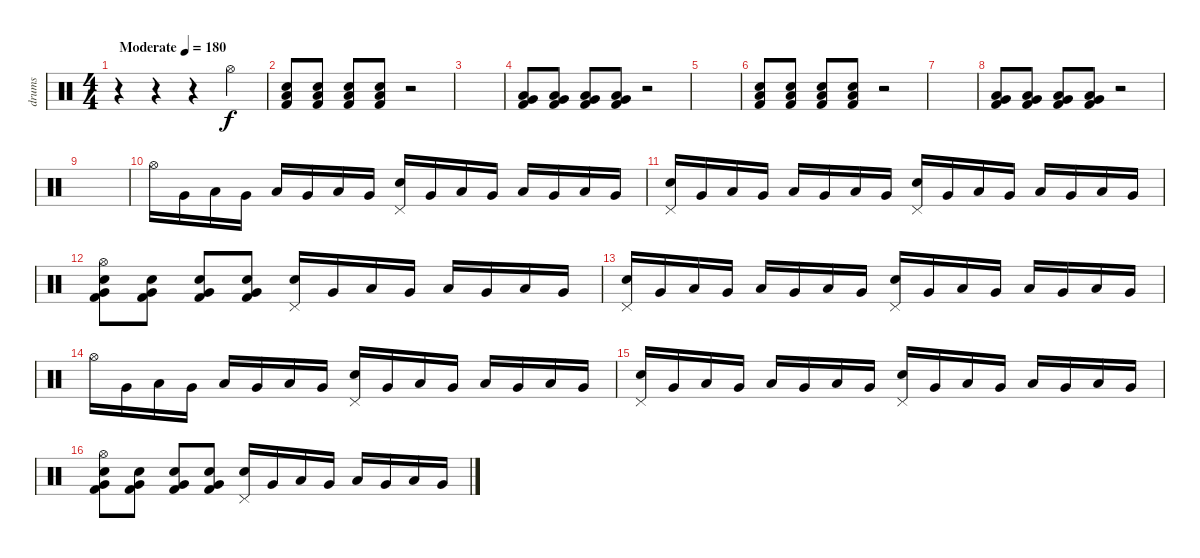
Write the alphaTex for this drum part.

\track ("drums" "drums") {instrument percussion}
\staff {score}
\articulation defaults
\ts (4 4)
\tempo (180 "Moderate")
\clef neutral
\ks c
r.4{dy f} r.4 r.4 "Hi-Hat (open)".4 |
("Low Floor Tom (hit)" "Snare (hit) 2" "Kick (hit) 2").8 ("Low Floor Tom (hit)" "Snare (hit) 2" "Kick (hit) 2").8 ("Low Floor Tom (hit)" "Snare (hit) 2" "Kick (hit) 2").8 ("Low Floor Tom (hit)" "Snare (hit) 2" "Kick (hit) 2").8 r.2 |
|
("Low Floor Tom (hit)" "Very Low Tom (hit)" "Kick (hit) 2").8 ("Low Floor Tom (hit)" "Very Low Tom (hit)" "Kick (hit) 2").8 ("Low Floor Tom (hit)" "Very Low Tom (hit)" "Kick (hit) 2").8 ("Low Floor Tom (hit)" "Very Low Tom (hit)" "Kick (hit) 2").8 r.2 |
|
("Low Floor Tom (hit)" "Snare (hit) 2" "Kick (hit) 2").8 ("Low Floor Tom (hit)" "Snare (hit) 2" "Kick (hit) 2").8 ("Low Floor Tom (hit)" "Snare (hit) 2" "Kick (hit) 2").8 ("Low Floor Tom (hit)" "Snare (hit) 2" "Kick (hit) 2").8 r.2 |
|
("Low Floor Tom (hit)" "Very Low Tom (hit)" "Kick (hit) 2").8 ("Low Floor Tom (hit)" "Very Low Tom (hit)" "Kick (hit) 2").8 ("Low Floor Tom (hit)" "Very Low Tom (hit)" "Kick (hit) 2").8 ("Low Floor Tom (hit)" "Very Low Tom (hit)" "Kick (hit) 2").8 r.2 |
|
"Hi-Hat (open)".16 "Very Low Tom (hit)".16 "Low Tom (hit)".16 "Very Low Tom (hit)".16 "Low Tom (hit)".16 "Very Low Tom (hit)".16 "Low Tom (hit)".16 "Very Low Tom (hit)".16 ("Pedal Hi-Hat (hit)" "Snare (hit) 2").16 "Very Low Tom (hit)".16 "Low Tom (hit)".16 "Very Low Tom (hit)".16 "Low Tom (hit)".16 "Very Low Tom (hit)".16 "Low Tom (hit)".16 "Very Low Tom (hit)".16 |
("Pedal Hi-Hat (hit)" "Snare (hit) 2").16 "Very Low Tom (hit)".16 "Low Tom (hit)".16 "Very Low Tom (hit)".16 "Low Tom (hit)".16 "Very Low Tom (hit)".16 "Low Tom (hit)".16 "Very Low Tom (hit)".16 ("Pedal Hi-Hat (hit)" "Snare (hit) 2").16 "Very Low Tom (hit)".16 "Low Tom (hit)".16 "Very Low Tom (hit)".16 "Low Tom (hit)".16 "Very Low Tom (hit)".16 "Low Tom (hit)".16 "Very Low Tom (hit)".16 |
("Hi-Hat (open)" "Very Low Tom (hit)" "Snare (hit) 2" "Kick (hit) 2").8 ("Very Low Tom (hit)" "Snare (hit) 2" "Kick (hit) 2").8 ("Very Low Tom (hit)" "Snare (hit) 2" "Kick (hit) 2").8 ("Very Low Tom (hit)" "Snare (hit) 2" "Kick (hit) 2").8 ("Pedal Hi-Hat (hit)" "Snare (hit) 2").16 "Very Low Tom (hit)".16 "Low Tom (hit)".16 "Very Low Tom (hit)".16 "Low Tom (hit)".16 "Very Low Tom (hit)".16 "Low Tom (hit)".16 "Very Low Tom (hit)".16 |
("Pedal Hi-Hat (hit)" "Snare (hit) 2").16 "Very Low Tom (hit)".16 "Low Tom (hit)".16 "Very Low Tom (hit)".16 "Low Tom (hit)".16 "Very Low Tom (hit)".16 "Low Tom (hit)".16 "Very Low Tom (hit)".16 ("Pedal Hi-Hat (hit)" "Snare (hit) 2").16 "Very Low Tom (hit)".16 "Low Tom (hit)".16 "Very Low Tom (hit)".16 "Low Tom (hit)".16 "Very Low Tom (hit)".16 "Low Tom (hit)".16 "Very Low Tom (hit)".16 |
"Hi-Hat (open)".16 "Very Low Tom (hit)".16 "Low Tom (hit)".16 "Very Low Tom (hit)".16 "Low Tom (hit)".16 "Very Low Tom (hit)".16 "Low Tom (hit)".16 "Very Low Tom (hit)".16 ("Pedal Hi-Hat (hit)" "Snare (hit) 2").16 "Very Low Tom (hit)".16 "Low Tom (hit)".16 "Very Low Tom (hit)".16 "Low Tom (hit)".16 "Very Low Tom (hit)".16 "Low Tom (hit)".16 "Very Low Tom (hit)".16 |
("Pedal Hi-Hat (hit)" "Snare (hit) 2").16 "Very Low Tom (hit)".16 "Low Tom (hit)".16 "Very Low Tom (hit)".16 "Low Tom (hit)".16 "Very Low Tom (hit)".16 "Low Tom (hit)".16 "Very Low Tom (hit)".16 ("Pedal Hi-Hat (hit)" "Snare (hit) 2").16 "Very Low Tom (hit)".16 "Low Tom (hit)".16 "Very Low Tom (hit)".16 "Low Tom (hit)".16 "Very Low Tom (hit)".16 "Low Tom (hit)".16 "Very Low Tom (hit)".16 |
("Hi-Hat (open)" "Very Low Tom (hit)" "Snare (hit) 2" "Kick (hit) 2").8 ("Very Low Tom (hit)" "Snare (hit) 2" "Kick (hit) 2").8 ("Very Low Tom (hit)" "Snare (hit) 2" "Kick (hit) 2").8 ("Very Low Tom (hit)" "Snare (hit) 2" "Kick (hit) 2").8 ("Pedal Hi-Hat (hit)" "Snare (hit) 2").16 "Very Low Tom (hit)".16 "Low Tom (hit)".16 "Very Low Tom (hit)".16 "Low Tom (hit)".16 "Very Low Tom (hit)".16 "Low Tom (hit)".16 "Very Low Tom (hit)".16
